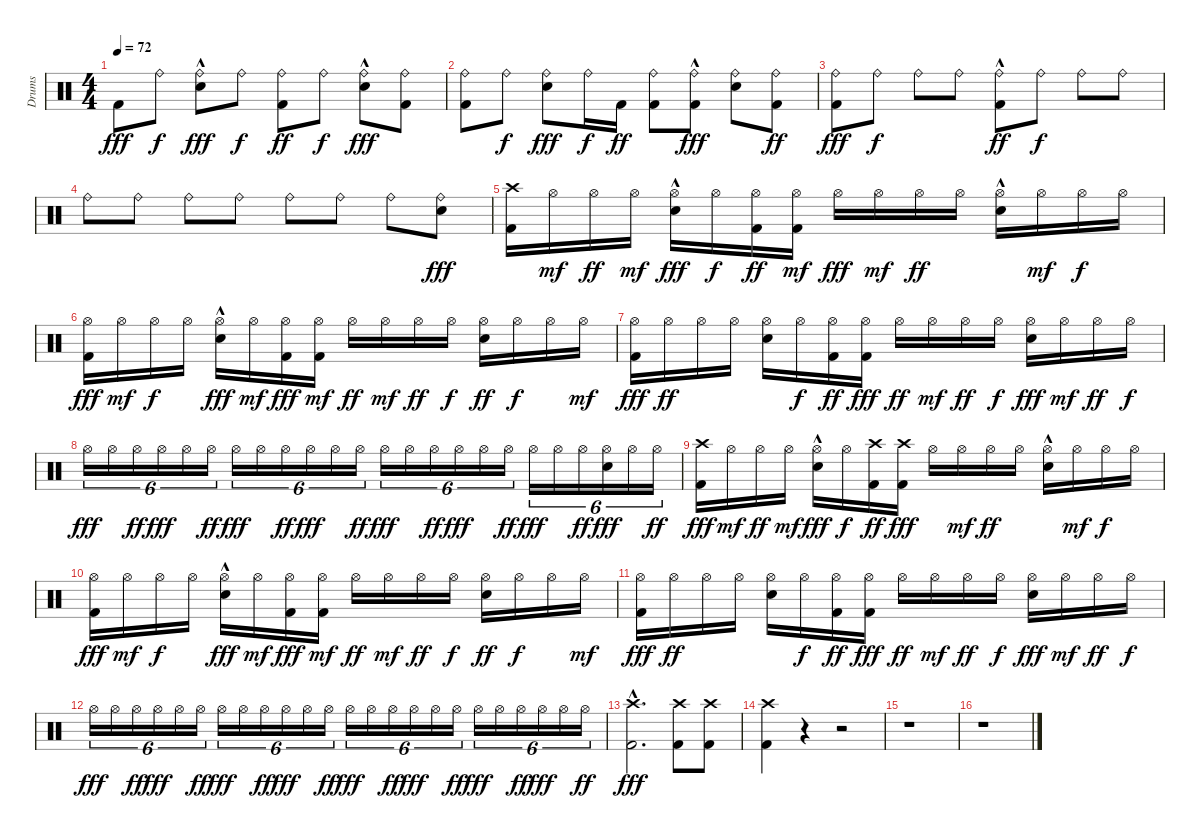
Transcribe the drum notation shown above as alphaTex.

\track ("Drums" "Drums") {instrument percussion}
\staff {score}
\articulation defaults
\ts (4 4)
\tempo 72
\clef neutral
\ks c "Kick (hit) 2".8{dy fff} "Ride (bell)".8{dy f}
("Snare (hit) 2"{hac} "Ride (bell)").8{dy fff} "Ride (bell)".8{dy f} ("Ride (bell)" "Kick (hit) 2").8{dy ff} "Ride (bell)".8{dy f} ("Snare (hit) 2"{hac} "Ride (bell)").8{dy fff} ("Kick (hit) 2" "Ride (bell)").8 |
("Kick (hit) 2" "Ride (bell)").8 "Ride (bell)".8{dy f} ("Snare (hit) 2" "Ride (bell)").8{dy fff} "Ride (bell)".16{dy f} "Kick (hit) 2".16{dy ff} ("Kick (hit) 2" "Ride (bell)").8 ("Kick (hit) 2"{hac} "Ride (bell)").8{dy fff} ("Snare (hit) 2" "Ride (bell)").8 ("Kick (hit) 2" "Ride (bell)").8{dy ff} |
("Kick (hit) 2" "Ride (bell)").8{dy fff} "Ride (bell)".8{dy f} "Ride (bell)".8 "Ride (bell)".8 ("Ride (bell)" "Kick (hit) 2"{hac}).8{dy ff} "Ride (bell)".8{dy f} "Ride (bell)".8 "Ride (bell)".8 |
"Ride (bell)".8 "Ride (bell)".8 "Ride (bell)".8 "Ride (bell)".8 "Ride (bell)".8 "Ride (bell)".8 "Ride (bell)".8 ("Snare (hit) 2" "Ride (bell)").8{dy fff} |
("Crash high (hit)" "Kick (hit) 2").16 "Hi-Hat (open)".16{dy mf} "Hi-Hat (open)".16{dy ff} "Hi-Hat (open)".16{dy mf} ("Snare (hit) 2"{hac} "Hi-Hat (open)").16{dy fff} "Hi-Hat (open)".16{dy f} ("Kick (hit) 2" "Hi-Hat (open)").16{dy ff} ("Kick (hit) 2" "Hi-Hat (open)").16{dy mf} "Hi-Hat (open)".16{dy fff} "Hi-Hat (open)".16{dy mf} "Hi-Hat (open)".16{dy ff} "Hi-Hat (open)".16 ("Snare (hit) 2"{hac} "Hi-Hat (open)").16 "Hi-Hat (open)".16{dy mf} "Hi-Hat (open)".16{dy f} "Hi-Hat (open)".16 |
("Kick (hit) 2" "Hi-Hat (open)").16{dy fff} "Hi-Hat (open)".16{dy mf} "Hi-Hat (open)".16{dy f} "Hi-Hat (open)".16 ("Snare (hit) 2"{hac} "Hi-Hat (open)").16{dy fff} "Hi-Hat (open)".16{dy mf} ("Kick (hit) 2" "Hi-Hat (open)").16{dy fff} ("Kick (hit) 2" "Hi-Hat (open)").16{dy mf} "Hi-Hat (open)".16{dy ff} "Hi-Hat (open)".16{dy mf} "Hi-Hat (open)".16{dy ff} "Hi-Hat (open)".16{dy f} ("Snare (hit) 2" "Hi-Hat (open)").16{dy ff} "Hi-Hat (open)".16{dy f} "Hi-Hat (open)".16 "Hi-Hat (open)".16{dy mf} |
("Hi-Hat (open)" "Kick (hit) 2").16{dy fff} "Hi-Hat (open)".16{dy ff} "Hi-Hat (open)".16 "Hi-Hat (open)".16 ("Snare (hit) 2" "Hi-Hat (open)").16 "Hi-Hat (open)".16{dy f} ("Kick (hit) 2" "Hi-Hat (open)").16{dy ff} ("Hi-Hat (open)" "Kick (hit) 2").16{dy fff} "Hi-Hat (open)".16{dy ff} "Hi-Hat (open)".16{dy mf} "Hi-Hat (open)".16{dy ff} "Hi-Hat (open)".16{dy f} ("Hi-Hat (open)" "Snare (hit) 2").16{dy fff} "Hi-Hat (open)".16{dy mf} "Hi-Hat (open)".16{dy ff} "Hi-Hat (open)".16{dy f} |
"Hi-Hat (open)".16{tu (6 4) dy fff} "Hi-Hat (open)".16{tu (6 4)} "Hi-Hat (open)".16{tu (6 4) dy ff} "Hi-Hat (open)".16{tu (6 4) dy fff} "Hi-Hat (open)".16{tu (6 4)} "Hi-Hat (open)".16{tu (6 4) dy ff} "Hi-Hat (open)".16{tu (6 4) dy fff} "Hi-Hat (open)".16{tu (6 4)} "Hi-Hat (open)".16{tu (6 4) dy ff} "Hi-Hat (open)".16{tu (6 4) dy fff} "Hi-Hat (open)".16{tu (6 4)} "Hi-Hat (open)".16{tu (6 4) dy ff} "Hi-Hat (open)".16{tu (6 4) dy fff} "Hi-Hat (open)".16{tu (6 4)} "Hi-Hat (open)".16{tu (6 4) dy ff} "Hi-Hat (open)".16{tu (6 4) dy fff} "Hi-Hat (open)".16{tu (6 4)} "Hi-Hat (open)".16{tu (6 4) dy ff} "Hi-Hat (open)".16{tu (6 4) dy fff} "Hi-Hat (open)".16{tu (6 4)} "Hi-Hat (open)".16{tu (6 4) dy ff} ("Hi-Hat (open)" "Snare (hit) 2").16{tu (6 4) dy fff} "Hi-Hat (open)".16{tu (6 4)} "Hi-Hat (open)".16{tu (6 4) dy ff} |
("Kick (hit) 2" "Crash high (hit)").16{dy fff} "Hi-Hat (open)".16{dy mf} "Hi-Hat (open)".16{dy ff} "Hi-Hat (open)".16{dy mf} ("Snare (hit) 2"{hac} "Hi-Hat (open)").16{dy fff} "Hi-Hat (open)".16{dy f} ("Kick (hit) 2" "Crash high (hit)").16{dy ff} ("Kick (hit) 2" "Crash high (hit)").16{dy fff} "Hi-Hat (open)".16 "Hi-Hat (open)".16{dy mf} "Hi-Hat (open)".16{dy ff} "Hi-Hat (open)".16 ("Snare (hit) 2"{hac} "Hi-Hat (open)").16 "Hi-Hat (open)".16{dy mf} "Hi-Hat (open)".16{dy f} "Hi-Hat (open)".16 |
("Kick (hit) 2" "Hi-Hat (open)").16{dy fff} "Hi-Hat (open)".16{dy mf} "Hi-Hat (open)".16{dy f} "Hi-Hat (open)".16 ("Snare (hit) 2"{hac} "Hi-Hat (open)").16{dy fff} "Hi-Hat (open)".16{dy mf} ("Kick (hit) 2" "Hi-Hat (open)").16{dy fff} ("Kick (hit) 2" "Hi-Hat (open)").16{dy mf} "Hi-Hat (open)".16{dy ff} "Hi-Hat (open)".16{dy mf} "Hi-Hat (open)".16{dy ff} "Hi-Hat (open)".16{dy f} ("Snare (hit) 2" "Hi-Hat (open)").16{dy ff} "Hi-Hat (open)".16{dy f} "Hi-Hat (open)".16 "Hi-Hat (open)".16{dy mf} |
("Hi-Hat (open)" "Kick (hit) 2").16{dy fff} "Hi-Hat (open)".16{dy ff} "Hi-Hat (open)".16 "Hi-Hat (open)".16 ("Snare (hit) 2" "Hi-Hat (open)").16 "Hi-Hat (open)".16{dy f} ("Kick (hit) 2" "Hi-Hat (open)").16{dy ff} ("Hi-Hat (open)" "Kick (hit) 2").16{dy fff} "Hi-Hat (open)".16{dy ff} "Hi-Hat (open)".16{dy mf} "Hi-Hat (open)".16{dy ff} "Hi-Hat (open)".16{dy f} ("Hi-Hat (open)" "Snare (hit) 2").16{dy fff} "Hi-Hat (open)".16{dy mf} "Hi-Hat (open)".16{dy ff} "Hi-Hat (open)".16{dy f} |
"Hi-Hat (open)".16{tu (6 4) dy fff} "Hi-Hat (open)".16{tu (6 4)} "Hi-Hat (open)".16{tu (6 4) dy ff} "Hi-Hat (open)".16{tu (6 4) dy fff} "Hi-Hat (open)".16{tu (6 4)} "Hi-Hat (open)".16{tu (6 4) dy ff} "Hi-Hat (open)".16{tu (6 4) dy fff} "Hi-Hat (open)".16{tu (6 4)} "Hi-Hat (open)".16{tu (6 4) dy ff} "Hi-Hat (open)".16{tu (6 4) dy fff} "Hi-Hat (open)".16{tu (6 4)} "Hi-Hat (open)".16{tu (6 4) dy ff} "Hi-Hat (open)".16{tu (6 4) dy fff} "Hi-Hat (open)".16{tu (6 4)} "Hi-Hat (open)".16{tu (6 4) dy ff} "Hi-Hat (open)".16{tu (6 4) dy fff} "Hi-Hat (open)".16{tu (6 4)} "Hi-Hat (open)".16{tu (6 4) dy ff} "Hi-Hat (open)".16{tu (6 4) dy fff} "Hi-Hat (open)".16{tu (6 4)} "Hi-Hat (open)".16{tu (6 4) dy ff} "Hi-Hat (open)".16{tu (6 4) dy fff} "Hi-Hat (open)".16{tu (6 4)} "Hi-Hat (open)".16{tu (6 4) dy ff} |
("Crash high (hit)" "Kick (hit) 2"{hac}).2{d dy fff} ("Kick (hit) 2" "Crash high (hit)").8 ("Crash high (hit)" "Kick (hit) 2").8 |
("Kick (hit) 2" "Crash high (hit)").4 r.4 r.2 |
r.1 |
r.1
